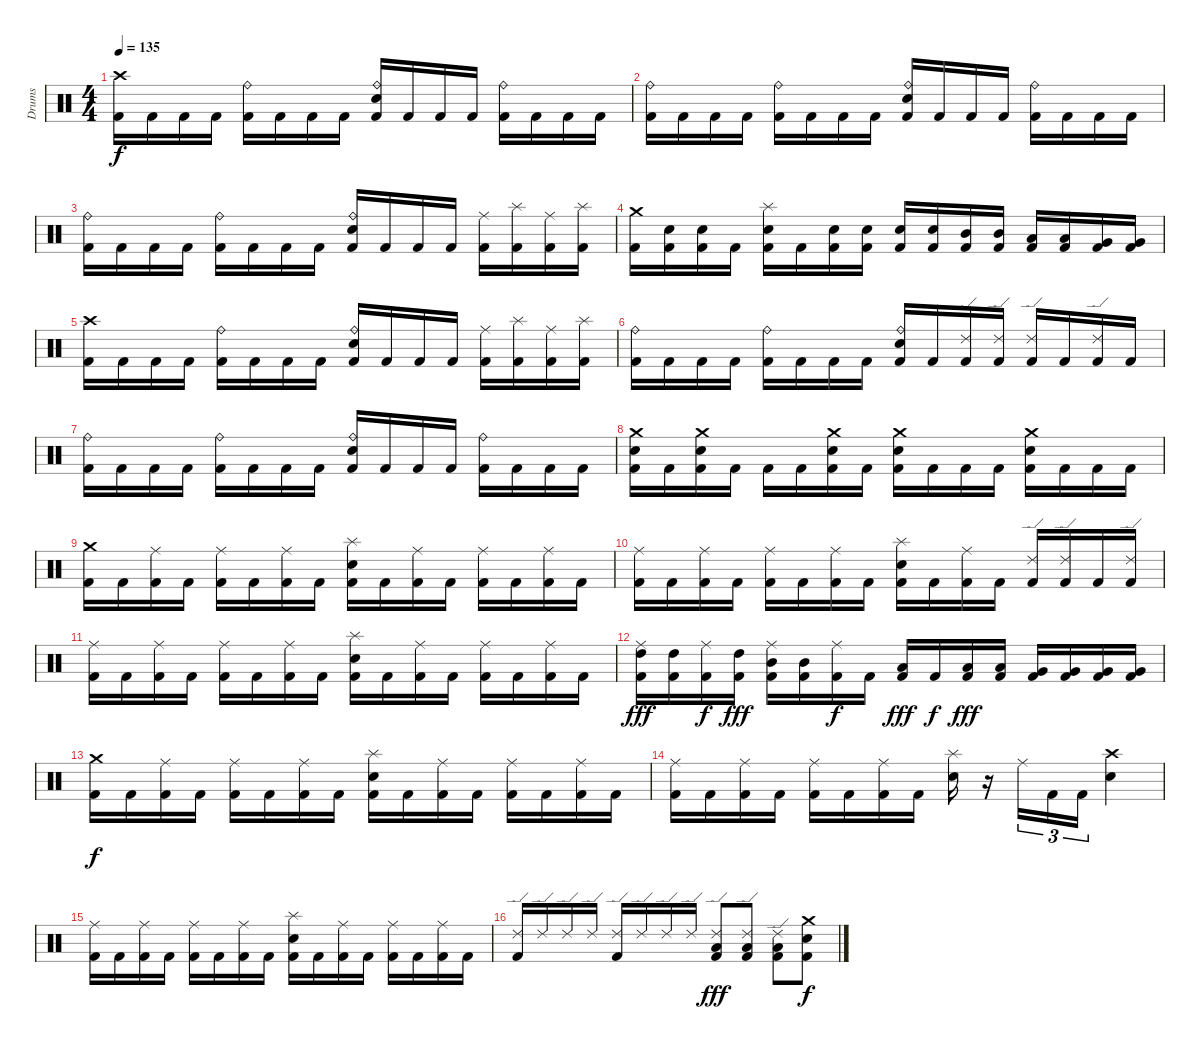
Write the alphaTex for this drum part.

\track ("Drums" "Drums") {instrument percussion}
\staff {score}
\articulation defaults
\ts (4 4)
\tempo 135
\clef neutral
\ks c
("Kick (hit) 2" "Crash high (hit)").16{dy f} "Kick (hit) 2".16 "Kick (hit) 2".16 "Kick (hit) 2".16 ("Kick (hit) 2" "Ride (bell)").16 "Kick (hit) 2".16 "Kick (hit) 2".16 "Kick (hit) 2".16 ("Kick (hit) 2" "Electric Snare (hit)" "Ride (bell)").16 "Kick (hit) 2".16 "Kick (hit) 2".16 "Kick (hit) 2".16 ("Kick (hit) 2" "Ride (bell)").16 "Kick (hit) 2".16 "Kick (hit) 2".16 "Kick (hit) 2".16 |
("Kick (hit) 2" "Ride (bell)").16 "Kick (hit) 2".16 "Kick (hit) 2".16 "Kick (hit) 2".16 ("Kick (hit) 2" "Ride (bell)").16 "Kick (hit) 2".16 "Kick (hit) 2".16 "Kick (hit) 2".16 ("Kick (hit) 2" "Electric Snare (hit)" "Ride (bell)").16 "Kick (hit) 2".16 "Kick (hit) 2".16 "Kick (hit) 2".16 ("Kick (hit) 2" "Ride (bell)").16 "Kick (hit) 2".16 "Kick (hit) 2".16 "Kick (hit) 2".16 |
("Kick (hit) 2" "Ride (bell)").16 "Kick (hit) 2".16 "Kick (hit) 2".16 "Kick (hit) 2".16 ("Kick (hit) 2" "Ride (bell)").16 "Kick (hit) 2".16 "Kick (hit) 2".16 "Kick (hit) 2".16 ("Kick (hit) 2" "Electric Snare (hit)" "Ride (bell)").16 "Kick (hit) 2".16 "Kick (hit) 2".16 "Kick (hit) 2".16 ("Kick (hit) 2" "Ride (middle)").16 ("Kick (hit) 2" "Splash (hit)").16 ("Kick (hit) 2" "Ride (middle)").16 ("Kick (hit) 2" "Splash (hit)").16 |
("Kick (hit) 2" "Crash medium (hit)").16 ("Kick (hit) 2" "Electric Snare (hit)").16 ("Kick (hit) 2" "Electric Snare (hit)").16 "Kick (hit) 2".16 ("Kick (hit) 2" "Electric Snare (hit)" "Splash (hit)").16 "Kick (hit) 2".16 ("Kick (hit) 2" "Electric Snare (hit)").16 ("Kick (hit) 2" "Electric Snare (hit)").16 ("Kick (hit) 2" "Electric Snare (hit)").16 ("Kick (hit) 2" "Electric Snare (hit)").16 ("Kick (hit) 2" "Mid Tom (hit)").16 ("Kick (hit) 2" "Mid Tom (hit)").16 ("Kick (hit) 2" "Low Tom (hit)").16 ("Kick (hit) 2" "Low Tom (hit)").16 ("Kick (hit) 2" "Very Low Tom (hit)").16 ("Kick (hit) 2" "Very Low Tom (hit)").16 |
("Kick (hit) 2" "Crash high (hit)").16 "Kick (hit) 2".16 "Kick (hit) 2".16 "Kick (hit) 2".16 ("Kick (hit) 2" "Ride (bell)").16 "Kick (hit) 2".16 "Kick (hit) 2".16 "Kick (hit) 2".16 ("Kick (hit) 2" "Electric Snare (hit)" "Ride (bell)").16 "Kick (hit) 2".16 "Kick (hit) 2".16 "Kick (hit) 2".16 ("Kick (hit) 2" "Ride (middle)").16 ("Kick (hit) 2" "Splash (hit)").16 ("Kick (hit) 2" "Ride (middle)").16 ("Kick (hit) 2" "Splash (hit)").16 |
("Kick (hit) 2" "Ride (bell)").16 "Kick (hit) 2".16 "Kick (hit) 2".16 "Kick (hit) 2".16 ("Kick (hit) 2" "Ride (bell)").16 "Kick (hit) 2".16 "Kick (hit) 2".16 "Kick (hit) 2".16 ("Kick (hit) 2" "Electric Snare (hit)" "Ride (bell)").16 "Kick (hit) 2".16 ("Kick (hit) 2" "Ride (edge) 2").16 ("Kick (hit) 2" "Ride (edge) 2").16 ("Kick (hit) 2" "Ride (edge) 2").16 "Kick (hit) 2".16 ("Kick (hit) 2" "Ride (edge) 2").16 "Kick (hit) 2".16 |
("Kick (hit) 2" "Ride (bell)").16 "Kick (hit) 2".16 "Kick (hit) 2".16 "Kick (hit) 2".16 ("Kick (hit) 2" "Ride (bell)").16 "Kick (hit) 2".16 "Kick (hit) 2".16 "Kick (hit) 2".16 ("Kick (hit) 2" "Electric Snare (hit)" "Ride (bell)").16 "Kick (hit) 2".16 "Kick (hit) 2".16 "Kick (hit) 2".16 ("Kick (hit) 2" "Ride (bell)").16 "Kick (hit) 2".16 "Kick (hit) 2".16 "Kick (hit) 2".16 |
("Kick (hit) 2" "Electric Snare (hit)" "Crash medium (hit)").16 "Kick (hit) 2".16 ("Kick (hit) 2" "Electric Snare (hit)" "Crash medium (hit)").16 "Kick (hit) 2".16 "Kick (hit) 2".16 "Kick (hit) 2".16 ("Kick (hit) 2" "Electric Snare (hit)" "Crash medium (hit)").16 "Kick (hit) 2".16 ("Kick (hit) 2" "Electric Snare (hit)" "Crash medium (hit)").16 "Kick (hit) 2".16 "Kick (hit) 2".16 "Kick (hit) 2".16 ("Kick (hit) 2" "Electric Snare (hit)" "Crash medium (hit)").16 "Kick (hit) 2".16 "Kick (hit) 2".16 "Kick (hit) 2".16 |
("Kick (hit) 2" "Crash medium (hit)").16 "Kick (hit) 2".16 ("Kick (hit) 2" "Ride (middle)").16 "Kick (hit) 2".16 ("Kick (hit) 2" "Ride (middle)").16 "Kick (hit) 2".16 ("Kick (hit) 2" "Ride (middle)").16 "Kick (hit) 2".16 ("Kick (hit) 2" "Snare (hit) 2" "Splash (hit)").16 "Kick (hit) 2".16 ("Kick (hit) 2" "Ride (middle)").16 "Kick (hit) 2".16 ("Kick (hit) 2" "Ride (middle)").16 "Kick (hit) 2".16 ("Kick (hit) 2" "Ride (middle)").16 "Kick (hit) 2".16 |
("Kick (hit) 2" "Ride (middle)").16 "Kick (hit) 2".16 ("Kick (hit) 2" "Ride (middle)").16 "Kick (hit) 2".16 ("Kick (hit) 2" "Ride (middle)").16 "Kick (hit) 2".16 ("Kick (hit) 2" "Ride (middle)").16 "Kick (hit) 2".16 ("Kick (hit) 2" "Snare (hit) 2" "Splash (hit)").16 "Kick (hit) 2".16 ("Kick (hit) 2" "Ride (middle)").16 "Kick (hit) 2".16 ("Kick (hit) 2" "Ride (edge) 2").16 ("Kick (hit) 2" "Ride (edge) 2").16 "Kick (hit) 2".16 ("Kick (hit) 2" "Ride (edge) 2").16 |
("Kick (hit) 2" "Ride (middle)").16 "Kick (hit) 2".16 ("Kick (hit) 2" "Ride (middle)").16 "Kick (hit) 2".16 ("Kick (hit) 2" "Ride (middle)").16 "Kick (hit) 2".16 ("Kick (hit) 2" "Ride (middle)").16 "Kick (hit) 2".16 ("Kick (hit) 2" "Snare (hit) 2" "Splash (hit)").16 "Kick (hit) 2".16 ("Kick (hit) 2" "Ride (middle)").16 "Kick (hit) 2".16 ("Kick (hit) 2" "Ride (middle)").16 "Kick (hit) 2".16 ("Kick (hit) 2" "Ride (middle)").16 "Kick (hit) 2".16 |
("Kick (hit) 2" "High Tom (hit)" "Ride (middle)").16{dy fff} ("Kick (hit) 2" "High Tom (hit)").16 ("Kick (hit) 2" "Ride (middle)").16{dy f} ("Kick (hit) 2" "High Tom (hit)").16{dy fff} ("Kick (hit) 2" "Mid Tom (hit)" "Ride (middle)").16 ("Kick (hit) 2" "Mid Tom (hit)").16 ("Kick (hit) 2" "Ride (middle)").16{dy f} "Kick (hit) 2".16 ("Kick (hit) 2" "Low Tom (hit)").16{dy fff} "Kick (hit) 2".16{dy f} ("Kick (hit) 2" "Low Tom (hit)").16{dy fff} ("Kick (hit) 2" "Low Tom (hit)").16 ("Kick (hit) 2" "Very Low Tom (hit)").16 ("Kick (hit) 2" "Very Low Tom (hit)").16 ("Kick (hit) 2" "Very Low Tom (hit)").16 ("Kick (hit) 2" "Very Low Tom (hit)").16 |
("Kick (hit) 2" "Crash medium (hit)").16{dy f} "Kick (hit) 2".16 ("Kick (hit) 2" "Ride (middle)").16 "Kick (hit) 2".16 ("Kick (hit) 2" "Ride (middle)").16 "Kick (hit) 2".16 ("Kick (hit) 2" "Ride (middle)").16 "Kick (hit) 2".16 ("Kick (hit) 2" "Snare (hit) 2" "Splash (hit)").16 "Kick (hit) 2".16 ("Kick (hit) 2" "Ride (middle)").16 "Kick (hit) 2".16 ("Kick (hit) 2" "Ride (middle)").16 "Kick (hit) 2".16 ("Kick (hit) 2" "Ride (middle)").16 "Kick (hit) 2".16 |
("Kick (hit) 2" "Ride (middle)").16 "Kick (hit) 2".16 ("Kick (hit) 2" "Ride (middle)").16 "Kick (hit) 2".16 ("Kick (hit) 2" "Ride (middle)").16 "Kick (hit) 2".16 ("Kick (hit) 2" "Ride (middle)").16 "Kick (hit) 2".16 ("Snare (hit) 2" "Splash (hit)").16 r.16 "Ride (middle)".16{tu (3 2)} "Kick (hit) 2".16{tu (3 2)} "Kick (hit) 2".16{tu (3 2)} ("Snare (hit) 2" "Crash high (hit)").4 |
("Kick (hit) 2" "Ride (middle)").16 "Kick (hit) 2".16 ("Kick (hit) 2" "Ride (middle)").16 "Kick (hit) 2".16 ("Kick (hit) 2" "Ride (middle)").16 "Kick (hit) 2".16 ("Kick (hit) 2" "Ride (middle)").16 "Kick (hit) 2".16 ("Kick (hit) 2" "Snare (hit) 2" "Splash (hit)").16 "Kick (hit) 2".16 ("Kick (hit) 2" "Ride (middle)").16 "Kick (hit) 2".16 ("Kick (hit) 2" "Ride (middle)").16 "Kick (hit) 2".16 ("Kick (hit) 2" "Ride (middle)").16 "Kick (hit) 2".16 |
("Kick (hit) 2" "Ride (edge) 2").16 "Ride (edge) 2".16 "Ride (edge) 2".16 "Ride (edge) 2".16 ("Kick (hit) 2" "Ride (edge) 2").16 "Ride (edge) 2".16 "Ride (edge) 2".16 "Ride (edge) 2".16 ("Kick (hit) 2" "Low Tom (hit)" "Ride (edge) 2").8{dy fff} ("Kick (hit) 2" "Low Tom (hit)" "Ride (edge) 2").8 ("Kick (hit) 2" "Low Tom (hit)" "Ride (edge) 2").8 ("Kick (hit) 2" "Electric Snare (hit)" "Crash medium (hit)").8{dy f}
